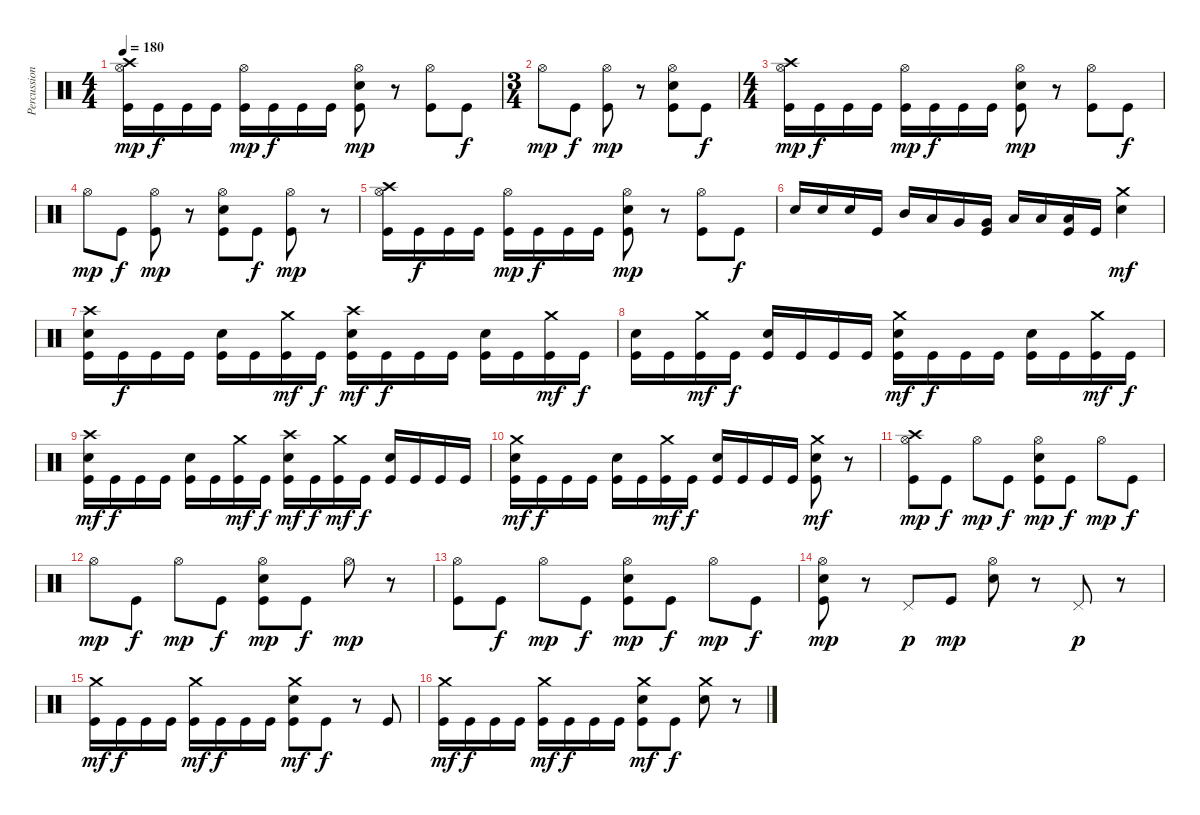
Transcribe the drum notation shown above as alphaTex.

\track ("Percussion" "Percussion") {instrument percussion}
\staff {score}
\articulation defaults
\ts (4 4)
\tempo 180
\clef neutral
\ks c
("Crash high (hit)" "Hi-Hat (open)" "Kick (hit)").16{dy mp} "Kick (hit)".16{dy f} "Kick (hit)".16 "Kick (hit)".16 ("Hi-Hat (open)" "Kick (hit)").16{dy mp} "Kick (hit)".16{dy f} "Kick (hit)".16 "Kick (hit)".16 ("Hi-Hat (open)" "Snare (hit) 2" "Kick (hit)").8{dy mp} r.8 ("Hi-Hat (open)" "Kick (hit)").8 "Kick (hit)".8{dy f} |
\ts (3 4)
"Hi-Hat (open)".8{dy mp} "Kick (hit)".8{dy f} ("Hi-Hat (open)" "Kick (hit)").8{dy mp} r.8 ("Hi-Hat (open)" "Snare (hit) 2" "Kick (hit)").8 "Kick (hit)".8{dy f} |
\ts (4 4)
("Crash high (hit)" "Hi-Hat (open)" "Kick (hit)").16{dy mp} "Kick (hit)".16{dy f} "Kick (hit)".16 "Kick (hit)".16 ("Hi-Hat (open)" "Kick (hit)").16{dy mp} "Kick (hit)".16{dy f} "Kick (hit)".16 "Kick (hit)".16 ("Hi-Hat (open)" "Snare (hit) 2" "Kick (hit)").8{dy mp} r.8 ("Hi-Hat (open)" "Kick (hit)").8 "Kick (hit)".8{dy f} |
"Hi-Hat (open)".8{dy mp} "Kick (hit)".8{dy f} ("Hi-Hat (open)" "Kick (hit)").8{dy mp} r.8 ("Hi-Hat (open)" "Snare (hit) 2" "Kick (hit)").8 "Kick (hit)".8{dy f} ("Hi-Hat (open)" "Kick (hit)").8{dy mp} r.8 |
("Crash high (hit)" "Hi-Hat (open)" "Kick (hit)").16 "Kick (hit)".16{dy f} "Kick (hit)".16 "Kick (hit)".16 ("Hi-Hat (open)" "Kick (hit)").16{dy mp} "Kick (hit)".16{dy f} "Kick (hit)".16 "Kick (hit)".16 ("Hi-Hat (open)" "Snare (hit) 2" "Kick (hit)").8{dy mp} r.8 ("Hi-Hat (open)" "Kick (hit)").8 "Kick (hit)".8{dy f} |
"Snare (hit) 2".16 "Snare (hit) 2".16 "Snare (hit) 2".16 "Kick (hit)".16 "Mid Tom (hit)".16 "Low Tom (hit)".16 "Very Low Tom (hit)".16 ("Very Low Tom (hit)" "Kick (hit)").16 "Low Floor Tom (hit)".16 "Low Floor Tom (hit)".16 ("Low Floor Tom (hit)" "Kick (hit)").16 "Kick (hit)".16 ("Crash medium (hit)" "Snare (hit) 2").4{dy mf} |
("Crash high (hit)" "Snare (hit) 2" "Kick (hit)").16 "Kick (hit)".16{dy f} "Kick (hit)".16 "Kick (hit)".16 ("Snare (hit) 2" "Kick (hit)").16 "Kick (hit)".16 ("Crash medium (hit)" "Kick (hit)").16{dy mf} "Kick (hit)".16{dy f} ("Crash high (hit)" "Snare (hit) 2" "Kick (hit)").16{dy mf} "Kick (hit)".16{dy f} "Kick (hit)".16 "Kick (hit)".16 ("Snare (hit) 2" "Kick (hit)").16 "Kick (hit)".16 ("Crash medium (hit)" "Kick (hit)").16{dy mf} "Kick (hit)".16{dy f} |
("Snare (hit) 2" "Kick (hit)").16 "Kick (hit)".16 ("Crash medium (hit)" "Kick (hit)").16{dy mf} "Kick (hit)".16{dy f} ("Snare (hit) 2" "Kick (hit)").16 "Kick (hit)".16 "Kick (hit)".16 "Kick (hit)".16 ("Crash medium (hit)" "Snare (hit) 2" "Kick (hit)").16{dy mf} "Kick (hit)".16{dy f} "Kick (hit)".16 "Kick (hit)".16 ("Snare (hit) 2" "Kick (hit)").16 "Kick (hit)".16 ("Crash medium (hit)" "Kick (hit)").16{dy mf} "Kick (hit)".16{dy f} |
("Crash high (hit)" "Snare (hit) 2" "Kick (hit)").16{dy mf} "Kick (hit)".16{dy f} "Kick (hit)".16 "Kick (hit)".16 ("Snare (hit) 2" "Kick (hit)").16 "Kick (hit)".16 ("Crash medium (hit)" "Kick (hit)").16{dy mf} "Kick (hit)".16{dy f} ("Crash high (hit)" "Snare (hit) 2" "Kick (hit)").16{dy mf} "Kick (hit)".16{dy f} ("Crash medium (hit)" "Kick (hit)").16{dy mf} "Kick (hit)".16{dy f} ("Snare (hit) 2" "Kick (hit)").16 "Kick (hit)".16 "Kick (hit)".16 "Kick (hit)".16 |
("Crash medium (hit)" "Snare (hit) 2" "Kick (hit)").16{dy mf} "Kick (hit)".16{dy f} "Kick (hit)".16 "Kick (hit)".16 ("Snare (hit) 2" "Kick (hit)").16 "Kick (hit)".16 ("Crash medium (hit)" "Kick (hit)").16{dy mf} "Kick (hit)".16{dy f} ("Snare (hit) 2" "Kick (hit)").16 "Kick (hit)".16 "Kick (hit)".16 "Kick (hit)".16 ("Crash medium (hit)" "Snare (hit) 2" "Kick (hit)").8{dy mf} r.8 |
("Crash high (hit)" "Hi-Hat (open)" "Kick (hit)").8{dy mp} "Kick (hit)".8{dy f} "Hi-Hat (open)".8{dy mp} "Kick (hit)".8{dy f} ("Hi-Hat (open)" "Snare (hit) 2" "Kick (hit)").8{dy mp} "Kick (hit)".8{dy f} "Hi-Hat (open)".8{dy mp} "Kick (hit)".8{dy f} |
"Hi-Hat (open)".8{dy mp} "Kick (hit)".8{dy f} "Hi-Hat (open)".8{dy mp} "Kick (hit)".8{dy f} ("Hi-Hat (open)" "Snare (hit) 2" "Kick (hit)").8{dy mp} "Kick (hit)".8{dy f} "Hi-Hat (open)".8{dy mp} r.8 |
("Hi-Hat (open)" "Kick (hit)").8 "Kick (hit)".8{dy f} "Hi-Hat (open)".8{dy mp} "Kick (hit)".8{dy f} ("Hi-Hat (open)" "Snare (hit) 2" "Kick (hit)").8{dy mp} "Kick (hit)".8{dy f} "Hi-Hat (open)".8{dy mp} "Kick (hit)".8{dy f} |
("Hi-Hat (open)" "Snare (hit) 2" "Kick (hit)").8{dy mp} r.8 "Pedal Hi-Hat (hit)".8{dy p} "Kick (hit)".8{dy mp} ("Hi-Hat (open)" "Snare (hit) 2").8 r.8 "Pedal Hi-Hat (hit)".8{dy p} r.8 |
("Crash medium (hit)" "Kick (hit)").16{dy mf} "Kick (hit)".16{dy f} "Kick (hit)".16 "Kick (hit)".16 ("Crash medium (hit)" "Kick (hit)").16{dy mf} "Kick (hit)".16{dy f} "Kick (hit)".16 "Kick (hit)".16 ("Crash medium (hit)" "Snare (hit) 2" "Kick (hit)").8{dy mf} "Kick (hit)".8{dy f} r.8 "Kick (hit)".8 |
("Crash medium (hit)" "Kick (hit)").16{dy mf} "Kick (hit)".16{dy f} "Kick (hit)".16 "Kick (hit)".16 ("Crash medium (hit)" "Kick (hit)").16{dy mf} "Kick (hit)".16{dy f} "Kick (hit)".16 "Kick (hit)".16 ("Crash medium (hit)" "Snare (hit) 2" "Kick (hit)").8{dy mf} "Kick (hit)".8{dy f} ("Crash medium (hit)" "Snare (hit) 2").8 r.8
